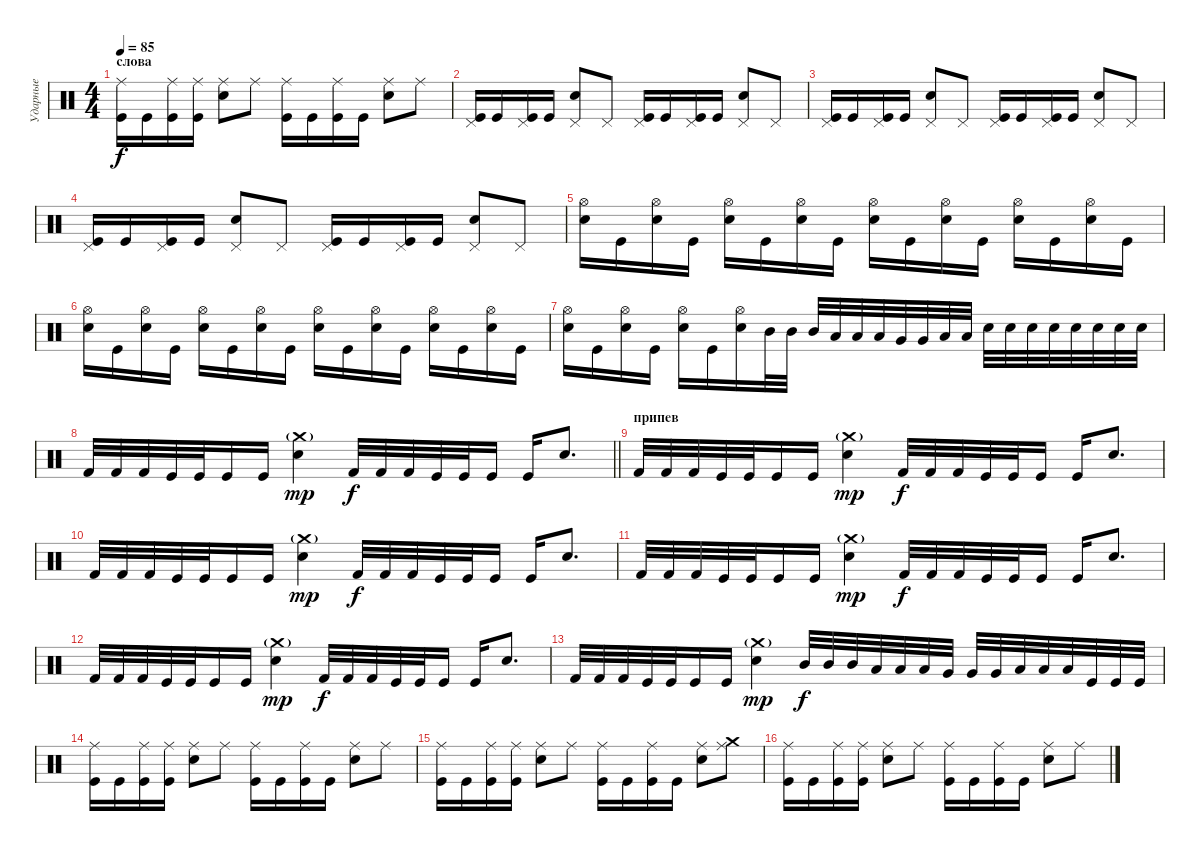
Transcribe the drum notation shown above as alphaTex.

\track ("Ударные" "Ударные") {instrument percussion}
\staff {score}
\articulation defaults
\ts (4 4)
\section ("" "слова")
\tempo 85
\clef neutral
\ks c
("Ride (middle)" "Kick (hit)").16{dy f} "Kick (hit)".16 ("Ride (middle)" "Kick (hit)").16 ("Ride (middle)" "Kick (hit)").16 ("Ride (middle)" "Electric Snare (hit)").8 "Ride (middle)".8 ("Ride (middle)" "Kick (hit)").16 "Kick (hit)".16 ("Ride (middle)" "Kick (hit)").16 "Kick (hit)".16 ("Ride (middle)" "Electric Snare (hit)").8 "Ride (middle)".8 |
("Pedal Hi-Hat (hit)" "Kick (hit)").16 "Kick (hit)".16 ("Pedal Hi-Hat (hit)" "Kick (hit)").16 "Kick (hit)".16 ("Pedal Hi-Hat (hit)" "Electric Snare (hit)").8 "Pedal Hi-Hat (hit)".8 ("Pedal Hi-Hat (hit)" "Kick (hit)").16 "Kick (hit)".16 ("Pedal Hi-Hat (hit)" "Kick (hit)").16 "Kick (hit)".16 ("Pedal Hi-Hat (hit)" "Electric Snare (hit)").8 "Pedal Hi-Hat (hit)".8 |
("Pedal Hi-Hat (hit)" "Kick (hit)").16 "Kick (hit)".16 ("Pedal Hi-Hat (hit)" "Kick (hit)").16 "Kick (hit)".16 ("Pedal Hi-Hat (hit)" "Electric Snare (hit)").8 "Pedal Hi-Hat (hit)".8 ("Pedal Hi-Hat (hit)" "Kick (hit)").16 "Kick (hit)".16 ("Pedal Hi-Hat (hit)" "Kick (hit)").16 "Kick (hit)".16 ("Pedal Hi-Hat (hit)" "Electric Snare (hit)").8 "Pedal Hi-Hat (hit)".8 |
("Pedal Hi-Hat (hit)" "Kick (hit)").16 "Kick (hit)".16 ("Pedal Hi-Hat (hit)" "Kick (hit)").16 "Kick (hit)".16 ("Pedal Hi-Hat (hit)" "Electric Snare (hit)").8 "Pedal Hi-Hat (hit)".8 ("Pedal Hi-Hat (hit)" "Kick (hit)").16 "Kick (hit)".16 ("Pedal Hi-Hat (hit)" "Kick (hit)").16 "Kick (hit)".16 ("Pedal Hi-Hat (hit)" "Electric Snare (hit)").8 "Pedal Hi-Hat (hit)".8 |
("Hi-Hat (open)" "Electric Snare (hit)").16 "Kick (hit)".16 ("Hi-Hat (open)" "Electric Snare (hit)").16 "Kick (hit)".16 ("Hi-Hat (open)" "Electric Snare (hit)").16 "Kick (hit)".16 ("Hi-Hat (open)" "Electric Snare (hit)").16 "Kick (hit)".16 ("Hi-Hat (open)" "Electric Snare (hit)").16 "Kick (hit)".16 ("Hi-Hat (open)" "Electric Snare (hit)").16 "Kick (hit)".16 ("Hi-Hat (open)" "Electric Snare (hit)").16 "Kick (hit)".16 ("Hi-Hat (open)" "Electric Snare (hit)").16 "Kick (hit)".16 |
("Hi-Hat (open)" "Electric Snare (hit)").16 "Kick (hit)".16 ("Hi-Hat (open)" "Electric Snare (hit)").16 "Kick (hit)".16 ("Hi-Hat (open)" "Electric Snare (hit)").16 "Kick (hit)".16 ("Hi-Hat (open)" "Electric Snare (hit)").16 "Kick (hit)".16 ("Hi-Hat (open)" "Electric Snare (hit)").16 "Kick (hit)".16 ("Hi-Hat (open)" "Electric Snare (hit)").16 "Kick (hit)".16 ("Hi-Hat (open)" "Electric Snare (hit)").16 "Kick (hit)".16 ("Hi-Hat (open)" "Electric Snare (hit)").16 "Kick (hit)".16 |
("Hi-Hat (open)" "Electric Snare (hit)").16 "Kick (hit)".16 ("Hi-Hat (open)" "Electric Snare (hit)").16 "Kick (hit)".16 ("Hi-Hat (open)" "Electric Snare (hit)").16 "Kick (hit)".16 ("Hi-Hat (open)" "Electric Snare (hit)").16 "Mid Tom (hit)".32 "Mid Tom (hit)".32 "Mid Tom (hit)".32 "Low Tom (hit)".32 "Low Tom (hit)".32 "Low Tom (hit)".32 "Very Low Tom (hit)".32 "Very Low Tom (hit)".32 "Low Floor Tom (hit)".32 "Low Floor Tom (hit)".32 "Snare (hit) 2".32 "Snare (hit) 2".32 "Snare (hit) 2".32 "Snare (hit) 2".32 "Snare (hit) 2".32 "Snare (hit) 2".32 "Snare (hit) 2".32 "Snare (hit) 2".32 |
\barLineRight lightlight "Kick (hit) 2".32 "Kick (hit) 2".32 "Kick (hit) 2".32 "Kick (hit)".32 "Kick (hit)".32 "Kick (hit)".16 "Kick (hit)".16
("Crash medium (hit)"{g} "Electric Snare (hit)").4{dy mp} "Kick (hit) 2".32{dy f} "Kick (hit) 2".32 "Kick (hit) 2".32 "Kick (hit)".32 "Kick (hit)".32 "Kick (hit)".16 "Kick (hit)".16 "Electric Snare (hit)".8{d} |
\section ("" "припев")
"Kick (hit) 2".32 "Kick (hit) 2".32 "Kick (hit) 2".32 "Kick (hit)".32 "Kick (hit)".32 "Kick (hit)".16 "Kick (hit)".16 ("Crash medium (hit)"{g} "Electric Snare (hit)").4{dy mp} "Kick (hit) 2".32{dy f} "Kick (hit) 2".32 "Kick (hit) 2".32 "Kick (hit)".32 "Kick (hit)".32 "Kick (hit)".16 "Kick (hit)".16 "Electric Snare (hit)".8{d} |
"Kick (hit) 2".32 "Kick (hit) 2".32 "Kick (hit) 2".32 "Kick (hit)".32 "Kick (hit)".32 "Kick (hit)".16 "Kick (hit)".16 ("Crash medium (hit)"{g} "Electric Snare (hit)").4{dy mp} "Kick (hit) 2".32{dy f} "Kick (hit) 2".32 "Kick (hit) 2".32 "Kick (hit)".32 "Kick (hit)".32 "Kick (hit)".16 "Kick (hit)".16 "Electric Snare (hit)".8{d} |
"Kick (hit) 2".32 "Kick (hit) 2".32 "Kick (hit) 2".32 "Kick (hit)".32 "Kick (hit)".32 "Kick (hit)".16 "Kick (hit)".16 ("Crash medium (hit)"{g} "Electric Snare (hit)").4{dy mp} "Kick (hit) 2".32{dy f} "Kick (hit) 2".32 "Kick (hit) 2".32 "Kick (hit)".32 "Kick (hit)".32 "Kick (hit)".16 "Kick (hit)".16 "Electric Snare (hit)".8{d} |
"Kick (hit) 2".32 "Kick (hit) 2".32 "Kick (hit) 2".32 "Kick (hit)".32 "Kick (hit)".32 "Kick (hit)".16 "Kick (hit)".16 ("Crash medium (hit)"{g} "Electric Snare (hit)").4{dy mp} "Kick (hit) 2".32{dy f} "Kick (hit) 2".32 "Kick (hit) 2".32 "Kick (hit)".32 "Kick (hit)".32 "Kick (hit)".16 "Kick (hit)".16 "Electric Snare (hit)".8{d} |
"Kick (hit) 2".32 "Kick (hit) 2".32 "Kick (hit) 2".32 "Kick (hit)".32 "Kick (hit)".32 "Kick (hit)".16 "Kick (hit)".16 ("Crash medium (hit)"{g} "Electric Snare (hit)").4{dy mp} "Mid Tom (hit)".32{dy f} "Mid Tom (hit)".32 "Mid Tom (hit)".32 "Low Tom (hit)".32 "Low Tom (hit)".32 "Low Tom (hit)".32 "Very Low Tom (hit)".32 "Very Low Tom (hit)".32 "Very Low Tom (hit)".32 "Low Floor Tom (hit)".32 "Low Floor Tom (hit)".32 "Low Floor Tom (hit)".32 "Kick (hit)".32 "Kick (hit)".32 "Kick (hit)".32 |
("Ride (middle)" "Kick (hit)").16 "Kick (hit)".16 ("Ride (middle)" "Kick (hit)").16 ("Ride (middle)" "Kick (hit)").16 ("Ride (middle)" "Electric Snare (hit)").8 "Ride (middle)".8 ("Ride (middle)" "Kick (hit)").16 "Kick (hit)".16 ("Ride (middle)" "Kick (hit)").16 "Kick (hit)".16 ("Ride (middle)" "Electric Snare (hit)").8 "Ride (middle)".8 |
("Ride (middle)" "Kick (hit)").16 "Kick (hit)".16 ("Ride (middle)" "Kick (hit)").16 ("Ride (middle)" "Kick (hit)").16 ("Ride (middle)" "Electric Snare (hit)").8 "Ride (middle)".8 ("Ride (middle)" "Kick (hit)").16 "Kick (hit)".16 ("Ride (middle)" "Kick (hit)").16 "Kick (hit)".16 ("Ride (middle)" "Electric Snare (hit)").8 ("Ride (middle)" "Crash medium (hit)").8 |
("Ride (middle)" "Kick (hit)").16 "Kick (hit)".16 ("Ride (middle)" "Kick (hit)").16 ("Ride (middle)" "Kick (hit)").16 ("Ride (middle)" "Electric Snare (hit)").8 "Ride (middle)".8 ("Ride (middle)" "Kick (hit)").16 "Kick (hit)".16 ("Ride (middle)" "Kick (hit)").16 "Kick (hit)".16 ("Ride (middle)" "Electric Snare (hit)").8 "Ride (middle)".8
